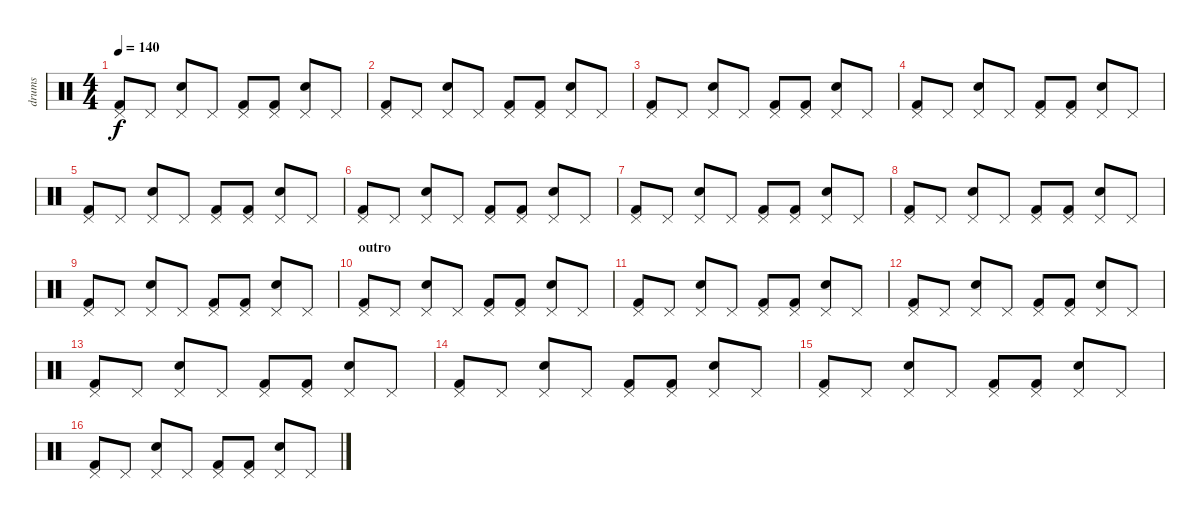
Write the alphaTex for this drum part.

\track ("drums" "drums") {instrument percussion}
\staff {score}
\articulation defaults
\ts (4 4)
\tempo 140
\clef neutral
\ks c
("Kick (hit) 2" "Pedal Hi-Hat (hit)").8{dy f} "Pedal Hi-Hat (hit)".8 ("Snare (hit) 2" "Pedal Hi-Hat (hit)").8 "Pedal Hi-Hat (hit)".8 ("Kick (hit) 2" "Pedal Hi-Hat (hit)").8 ("Kick (hit) 2" "Pedal Hi-Hat (hit)").8 ("Snare (hit) 2" "Pedal Hi-Hat (hit)").8 "Pedal Hi-Hat (hit)".8 |
("Kick (hit) 2" "Pedal Hi-Hat (hit)").8 "Pedal Hi-Hat (hit)".8 ("Snare (hit) 2" "Pedal Hi-Hat (hit)").8 "Pedal Hi-Hat (hit)".8 ("Kick (hit) 2" "Pedal Hi-Hat (hit)").8 ("Kick (hit) 2" "Pedal Hi-Hat (hit)").8 ("Snare (hit) 2" "Pedal Hi-Hat (hit)").8 "Pedal Hi-Hat (hit)".8 |
("Kick (hit) 2" "Pedal Hi-Hat (hit)").8 "Pedal Hi-Hat (hit)".8 ("Snare (hit) 2" "Pedal Hi-Hat (hit)").8 "Pedal Hi-Hat (hit)".8 ("Kick (hit) 2" "Pedal Hi-Hat (hit)").8 ("Kick (hit) 2" "Pedal Hi-Hat (hit)").8 ("Snare (hit) 2" "Pedal Hi-Hat (hit)").8 "Pedal Hi-Hat (hit)".8 |
("Kick (hit) 2" "Pedal Hi-Hat (hit)").8 "Pedal Hi-Hat (hit)".8 ("Snare (hit) 2" "Pedal Hi-Hat (hit)").8 "Pedal Hi-Hat (hit)".8 ("Kick (hit) 2" "Pedal Hi-Hat (hit)").8 ("Kick (hit) 2" "Pedal Hi-Hat (hit)").8 ("Snare (hit) 2" "Pedal Hi-Hat (hit)").8 "Pedal Hi-Hat (hit)".8 |
("Kick (hit) 2" "Pedal Hi-Hat (hit)").8 "Pedal Hi-Hat (hit)".8 ("Snare (hit) 2" "Pedal Hi-Hat (hit)").8 "Pedal Hi-Hat (hit)".8 ("Kick (hit) 2" "Pedal Hi-Hat (hit)").8 ("Kick (hit) 2" "Pedal Hi-Hat (hit)").8 ("Snare (hit) 2" "Pedal Hi-Hat (hit)").8 "Pedal Hi-Hat (hit)".8 |
("Kick (hit) 2" "Pedal Hi-Hat (hit)").8 "Pedal Hi-Hat (hit)".8 ("Snare (hit) 2" "Pedal Hi-Hat (hit)").8 "Pedal Hi-Hat (hit)".8 ("Kick (hit) 2" "Pedal Hi-Hat (hit)").8 ("Kick (hit) 2" "Pedal Hi-Hat (hit)").8 ("Snare (hit) 2" "Pedal Hi-Hat (hit)").8 "Pedal Hi-Hat (hit)".8 |
("Kick (hit) 2" "Pedal Hi-Hat (hit)").8 "Pedal Hi-Hat (hit)".8 ("Snare (hit) 2" "Pedal Hi-Hat (hit)").8 "Pedal Hi-Hat (hit)".8 ("Kick (hit) 2" "Pedal Hi-Hat (hit)").8 ("Kick (hit) 2" "Pedal Hi-Hat (hit)").8 ("Snare (hit) 2" "Pedal Hi-Hat (hit)").8 "Pedal Hi-Hat (hit)".8 |
("Kick (hit) 2" "Pedal Hi-Hat (hit)").8 "Pedal Hi-Hat (hit)".8 ("Snare (hit) 2" "Pedal Hi-Hat (hit)").8 "Pedal Hi-Hat (hit)".8 ("Kick (hit) 2" "Pedal Hi-Hat (hit)").8 ("Kick (hit) 2" "Pedal Hi-Hat (hit)").8 ("Snare (hit) 2" "Pedal Hi-Hat (hit)").8 "Pedal Hi-Hat (hit)".8 |
("Kick (hit) 2" "Pedal Hi-Hat (hit)").8 "Pedal Hi-Hat (hit)".8 ("Snare (hit) 2" "Pedal Hi-Hat (hit)").8 "Pedal Hi-Hat (hit)".8 ("Kick (hit) 2" "Pedal Hi-Hat (hit)").8 ("Kick (hit) 2" "Pedal Hi-Hat (hit)").8 ("Snare (hit) 2" "Pedal Hi-Hat (hit)").8 "Pedal Hi-Hat (hit)".8 |
\section ("" "outro")
("Kick (hit) 2" "Pedal Hi-Hat (hit)").8 "Pedal Hi-Hat (hit)".8 ("Snare (hit) 2" "Pedal Hi-Hat (hit)").8 "Pedal Hi-Hat (hit)".8 ("Kick (hit) 2" "Pedal Hi-Hat (hit)").8 ("Kick (hit) 2" "Pedal Hi-Hat (hit)").8 ("Snare (hit) 2" "Pedal Hi-Hat (hit)").8 "Pedal Hi-Hat (hit)".8 |
("Kick (hit) 2" "Pedal Hi-Hat (hit)").8 "Pedal Hi-Hat (hit)".8 ("Snare (hit) 2" "Pedal Hi-Hat (hit)").8 "Pedal Hi-Hat (hit)".8 ("Kick (hit) 2" "Pedal Hi-Hat (hit)").8 ("Kick (hit) 2" "Pedal Hi-Hat (hit)").8 ("Snare (hit) 2" "Pedal Hi-Hat (hit)").8 "Pedal Hi-Hat (hit)".8 |
("Kick (hit) 2" "Pedal Hi-Hat (hit)").8 "Pedal Hi-Hat (hit)".8 ("Snare (hit) 2" "Pedal Hi-Hat (hit)").8 "Pedal Hi-Hat (hit)".8 ("Kick (hit) 2" "Pedal Hi-Hat (hit)").8 ("Kick (hit) 2" "Pedal Hi-Hat (hit)").8 ("Snare (hit) 2" "Pedal Hi-Hat (hit)").8 "Pedal Hi-Hat (hit)".8 |
("Kick (hit) 2" "Pedal Hi-Hat (hit)").8 "Pedal Hi-Hat (hit)".8 ("Snare (hit) 2" "Pedal Hi-Hat (hit)").8 "Pedal Hi-Hat (hit)".8 ("Kick (hit) 2" "Pedal Hi-Hat (hit)").8 ("Kick (hit) 2" "Pedal Hi-Hat (hit)").8 ("Snare (hit) 2" "Pedal Hi-Hat (hit)").8 "Pedal Hi-Hat (hit)".8 |
("Kick (hit) 2" "Pedal Hi-Hat (hit)").8 "Pedal Hi-Hat (hit)".8 ("Snare (hit) 2" "Pedal Hi-Hat (hit)").8 "Pedal Hi-Hat (hit)".8 ("Kick (hit) 2" "Pedal Hi-Hat (hit)").8 ("Kick (hit) 2" "Pedal Hi-Hat (hit)").8 ("Snare (hit) 2" "Pedal Hi-Hat (hit)").8 "Pedal Hi-Hat (hit)".8 |
("Kick (hit) 2" "Pedal Hi-Hat (hit)").8 "Pedal Hi-Hat (hit)".8 ("Snare (hit) 2" "Pedal Hi-Hat (hit)").8 "Pedal Hi-Hat (hit)".8 ("Kick (hit) 2" "Pedal Hi-Hat (hit)").8 ("Kick (hit) 2" "Pedal Hi-Hat (hit)").8 ("Snare (hit) 2" "Pedal Hi-Hat (hit)").8 "Pedal Hi-Hat (hit)".8 |
("Kick (hit) 2" "Pedal Hi-Hat (hit)").8 "Pedal Hi-Hat (hit)".8 ("Snare (hit) 2" "Pedal Hi-Hat (hit)").8 "Pedal Hi-Hat (hit)".8 ("Kick (hit) 2" "Pedal Hi-Hat (hit)").8 ("Kick (hit) 2" "Pedal Hi-Hat (hit)").8 ("Snare (hit) 2" "Pedal Hi-Hat (hit)").8 "Pedal Hi-Hat (hit)".8
